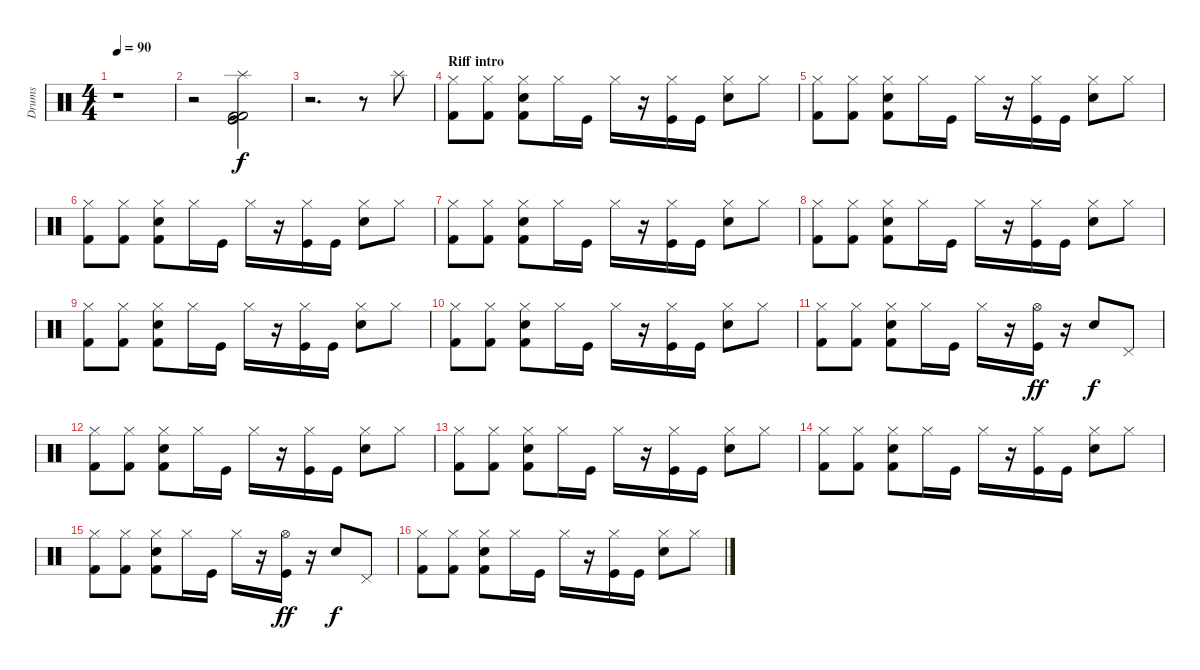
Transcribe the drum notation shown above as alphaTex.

\track ("Drums" "Drums") {instrument percussion}
\staff {score}
\articulation defaults
\ts (4 4)
\tempo 90
\clef neutral
\ks c
r.1{dy f} |
r.2 ("Kick (hit)" "Kick (hit) 2" "Kick (hit)" "Kick (hit) 2" "Splash (hit)" "Kick (hit)").2 |
r.2{d} r.8 "Splash (hit)".8 |
\section ("" "Riff intro")
("Hi-Hat (closed)" "Kick (hit) 2").8 ("Hi-Hat (closed)" "Kick (hit) 2").8 ("Hi-Hat (closed)" "Electric Snare (hit)" "Kick (hit) 2").8 "Hi-Hat (closed)".16 "Kick (hit)".16 "Hi-Hat (closed)".16 r.16 ("Hi-Hat (closed)" "Kick (hit)").16 "Kick (hit)".16 ("Hi-Hat (closed)" "Electric Snare (hit)").8 "Hi-Hat (closed)".8 |
("Hi-Hat (closed)" "Kick (hit) 2").8 ("Hi-Hat (closed)" "Kick (hit) 2").8 ("Hi-Hat (closed)" "Electric Snare (hit)" "Kick (hit) 2").8 "Hi-Hat (closed)".16 "Kick (hit)".16 "Hi-Hat (closed)".16 r.16 ("Hi-Hat (closed)" "Kick (hit)").16 "Kick (hit)".16 ("Hi-Hat (closed)" "Electric Snare (hit)").8 "Hi-Hat (closed)".8 |
("Hi-Hat (closed)" "Kick (hit) 2").8 ("Hi-Hat (closed)" "Kick (hit) 2").8 ("Hi-Hat (closed)" "Electric Snare (hit)" "Kick (hit) 2").8 "Hi-Hat (closed)".16 "Kick (hit)".16 "Hi-Hat (closed)".16 r.16 ("Hi-Hat (closed)" "Kick (hit)").16 "Kick (hit)".16 ("Hi-Hat (closed)" "Electric Snare (hit)").8 "Hi-Hat (closed)".8 |
("Hi-Hat (closed)" "Kick (hit) 2").8 ("Hi-Hat (closed)" "Kick (hit) 2").8 ("Hi-Hat (closed)" "Electric Snare (hit)" "Kick (hit) 2").8 "Hi-Hat (closed)".16 "Kick (hit)".16 "Hi-Hat (closed)".16 r.16 ("Hi-Hat (closed)" "Kick (hit)").16 "Kick (hit)".16 ("Hi-Hat (closed)" "Electric Snare (hit)").8 "Hi-Hat (closed)".8 |
("Hi-Hat (closed)" "Kick (hit) 2").8 ("Hi-Hat (closed)" "Kick (hit) 2").8 ("Hi-Hat (closed)" "Electric Snare (hit)" "Kick (hit) 2").8 "Hi-Hat (closed)".16 "Kick (hit)".16 "Hi-Hat (closed)".16 r.16 ("Hi-Hat (closed)" "Kick (hit)").16 "Kick (hit)".16 ("Hi-Hat (closed)" "Electric Snare (hit)").8 "Hi-Hat (closed)".8 |
("Hi-Hat (closed)" "Kick (hit) 2").8 ("Hi-Hat (closed)" "Kick (hit) 2").8 ("Hi-Hat (closed)" "Electric Snare (hit)" "Kick (hit) 2").8 "Hi-Hat (closed)".16 "Kick (hit)".16 "Hi-Hat (closed)".16 r.16 ("Hi-Hat (closed)" "Kick (hit)").16 "Kick (hit)".16 ("Hi-Hat (closed)" "Electric Snare (hit)").8 "Hi-Hat (closed)".8 |
("Hi-Hat (closed)" "Kick (hit) 2").8 ("Hi-Hat (closed)" "Kick (hit) 2").8 ("Hi-Hat (closed)" "Electric Snare (hit)" "Kick (hit) 2").8 "Hi-Hat (closed)".16 "Kick (hit)".16 "Hi-Hat (closed)".16 r.16 ("Hi-Hat (closed)" "Kick (hit)").16 "Kick (hit)".16 ("Hi-Hat (closed)" "Electric Snare (hit)").8 "Hi-Hat (closed)".8 |
("Hi-Hat (closed)" "Kick (hit) 2").8 ("Hi-Hat (closed)" "Kick (hit) 2").8 ("Hi-Hat (closed)" "Electric Snare (hit)" "Kick (hit) 2").8 "Hi-Hat (closed)".16 "Kick (hit)".16 "Hi-Hat (closed)".16 r.16 ("Hi-Hat (open)" "Kick (hit)").16{dy ff} r.16 "Electric Snare (hit)".8{dy f} "Pedal Hi-Hat (hit)".8 |
("Hi-Hat (closed)" "Kick (hit) 2").8 ("Hi-Hat (closed)" "Kick (hit) 2").8 ("Hi-Hat (closed)" "Electric Snare (hit)" "Kick (hit) 2").8 "Hi-Hat (closed)".16 "Kick (hit)".16 "Hi-Hat (closed)".16 r.16 ("Hi-Hat (closed)" "Kick (hit)").16 "Kick (hit)".16 ("Hi-Hat (closed)" "Electric Snare (hit)").8 "Hi-Hat (closed)".8 |
("Hi-Hat (closed)" "Kick (hit) 2").8 ("Hi-Hat (closed)" "Kick (hit) 2").8 ("Hi-Hat (closed)" "Electric Snare (hit)" "Kick (hit) 2").8 "Hi-Hat (closed)".16 "Kick (hit)".16 "Hi-Hat (closed)".16 r.16 ("Hi-Hat (closed)" "Kick (hit)").16 "Kick (hit)".16 ("Hi-Hat (closed)" "Electric Snare (hit)").8 "Hi-Hat (closed)".8 |
("Hi-Hat (closed)" "Kick (hit) 2").8 ("Hi-Hat (closed)" "Kick (hit) 2").8 ("Hi-Hat (closed)" "Electric Snare (hit)" "Kick (hit) 2").8 "Hi-Hat (closed)".16 "Kick (hit)".16 "Hi-Hat (closed)".16 r.16 ("Hi-Hat (closed)" "Kick (hit)").16 "Kick (hit)".16 ("Hi-Hat (closed)" "Electric Snare (hit)").8 "Hi-Hat (closed)".8 |
("Hi-Hat (closed)" "Kick (hit) 2").8 ("Hi-Hat (closed)" "Kick (hit) 2").8 ("Hi-Hat (closed)" "Electric Snare (hit)" "Kick (hit) 2").8 "Hi-Hat (closed)".16 "Kick (hit)".16 "Hi-Hat (closed)".16 r.16 ("Hi-Hat (open)" "Kick (hit)").16{dy ff} r.16 "Electric Snare (hit)".8{dy f} "Pedal Hi-Hat (hit)".8 |
("Hi-Hat (closed)" "Kick (hit) 2").8 ("Hi-Hat (closed)" "Kick (hit) 2").8 ("Hi-Hat (closed)" "Electric Snare (hit)" "Kick (hit) 2").8 "Hi-Hat (closed)".16 "Kick (hit)".16 "Hi-Hat (closed)".16 r.16 ("Hi-Hat (closed)" "Kick (hit)").16 "Kick (hit)".16 ("Hi-Hat (closed)" "Electric Snare (hit)").8 "Hi-Hat (closed)".8
